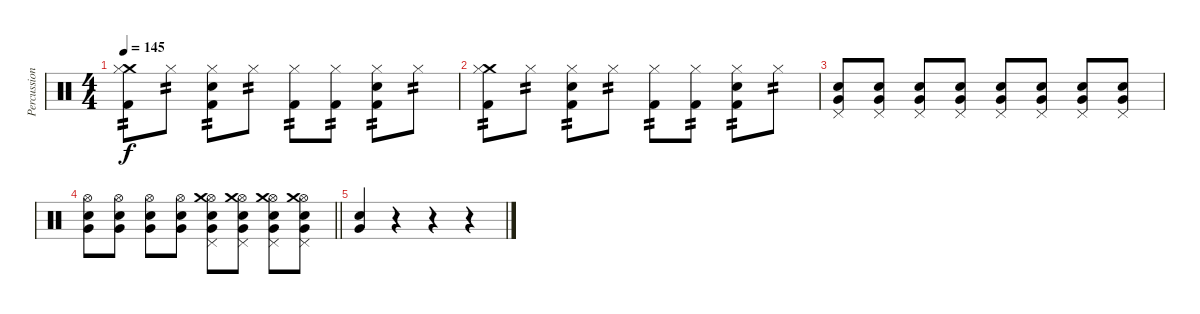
\track ("Percussion" "Percussion") {instrument percussion}
\staff {score}
\articulation defaults
\ts (4 4)
\tempo 145
\clef neutral
\ks c
("Crash medium (hit)" "Hi-Hat (closed)" "Kick (hit) 2").8{tp 2 dy f} "Hi-Hat (closed)".8{tp 2} ("Hi-Hat (closed)" "Snare (hit) 2" "Kick (hit) 2").8{tp 2} "Hi-Hat (closed)".8{tp 2} ("Hi-Hat (closed)" "Kick (hit) 2").8{tp 2} ("Hi-Hat (closed)" "Kick (hit) 2").8{tp 2} ("Hi-Hat (closed)" "Snare (hit) 2" "Kick (hit) 2").8{tp 2} "Hi-Hat (closed)".8{tp 2} |
("Crash medium (hit)" "Hi-Hat (closed)" "Kick (hit) 2").8{tp 2} "Hi-Hat (closed)".8{tp 2} ("Hi-Hat (closed)" "Snare (hit) 2" "Kick (hit) 2").8{tp 2} "Hi-Hat (closed)".8{tp 2} ("Hi-Hat (closed)" "Kick (hit) 2").8{tp 2} ("Hi-Hat (closed)" "Kick (hit) 2").8{tp 2} ("Hi-Hat (closed)" "Snare (hit) 2" "Kick (hit) 2").8{tp 2} "Hi-Hat (closed)".8{tp 2} |
("Pedal Hi-Hat (hit)" "Very Low Tom (hit)" "Snare (hit) 2").8 ("Pedal Hi-Hat (hit)" "Very Low Tom (hit)" "Snare (hit) 2").8 ("Pedal Hi-Hat (hit)" "Very Low Tom (hit)" "Snare (hit) 2").8 ("Pedal Hi-Hat (hit)" "Very Low Tom (hit)" "Snare (hit) 2").8 ("Pedal Hi-Hat (hit)" "Very Low Tom (hit)" "Snare (hit) 2").8 ("Pedal Hi-Hat (hit)" "Very Low Tom (hit)" "Snare (hit) 2").8 ("Pedal Hi-Hat (hit)" "Very Low Tom (hit)" "Snare (hit) 2").8 ("Pedal Hi-Hat (hit)" "Very Low Tom (hit)" "Snare (hit) 2").8 |
\barLineRight lightlight
("Hi-Hat (open)" "Very Low Tom (hit)" "Snare (hit) 2").8 ("Hi-Hat (open)" "Very Low Tom (hit)" "Snare (hit) 2").8 ("Hi-Hat (open)" "Very Low Tom (hit)" "Snare (hit) 2").8 ("Hi-Hat (open)" "Very Low Tom (hit)" "Snare (hit) 2").8 ("Pedal Hi-Hat (hit)" "Hi-Hat (open)" "Crash medium (hit)" "Very Low Tom (hit)" "Snare (hit) 2").8 ("Pedal Hi-Hat (hit)" "Hi-Hat (open)" "Crash medium (hit)" "Very Low Tom (hit)" "Snare (hit) 2").8 ("Pedal Hi-Hat (hit)" "Hi-Hat (open)" "Crash medium (hit)" "Very Low Tom (hit)" "Snare (hit) 2").8 ("Pedal Hi-Hat (hit)" "Hi-Hat (open)" "Crash medium (hit)" "Very Low Tom (hit)" "Snare (hit) 2").8 |
("Very Low Tom (hit)" "Snare (hit) 2").4 r.4 r.4 r.4
